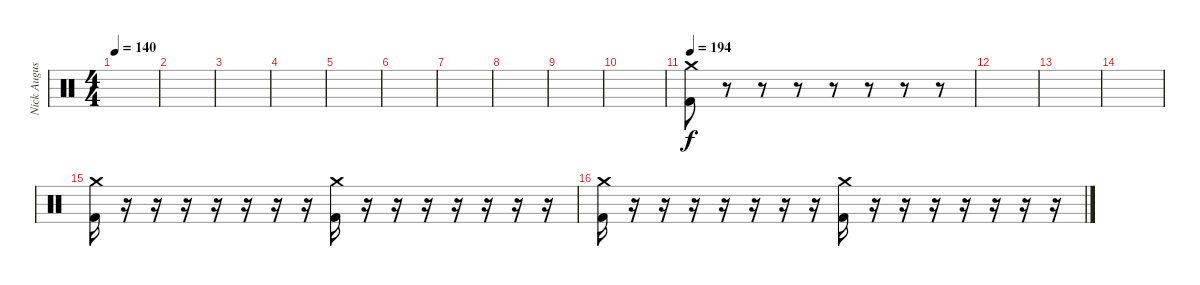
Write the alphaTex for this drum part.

\track ("Nick Augusto" "Nick Augus") {instrument percussion}
\staff {score}
\articulation defaults
\ts (4 4)
\tempo 140
\clef neutral
\ks c
|
|
|
|
|
|
|
|
|
|
\tempo 194
("Crash medium (hit)" "Kick (hit) 2").8 r.8 r.8 r.8 r.8 r.8 r.8 r.8 |
|
|
|
("Crash medium (hit)" "Kick (hit) 2").16 r.16 r.16 r.16 r.16 r.16 r.16 r.16 ("Crash medium (hit)" "Kick (hit) 2").16 r.16 r.16 r.16 r.16 r.16 r.16 r.16 |
("Crash medium (hit)" "Kick (hit) 2").16 r.16 r.16 r.16 r.16 r.16 r.16 r.16 ("Crash medium (hit)" "Kick (hit) 2").16 r.16 r.16 r.16 r.16 r.16 r.16 r.16
